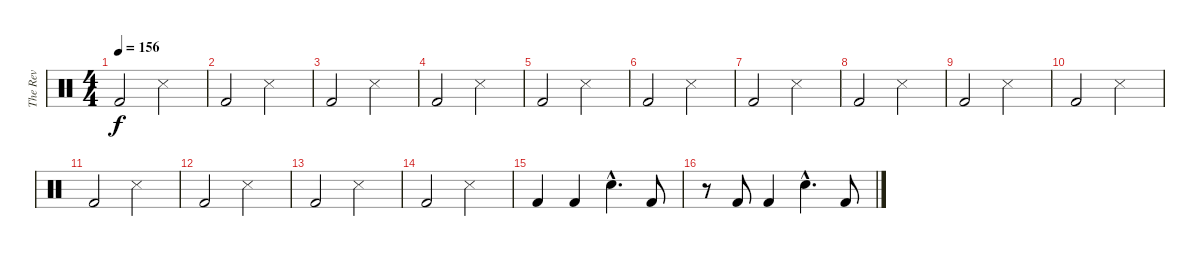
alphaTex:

\track ("The Rev" "The Rev") {instrument percussion}
\staff {score}
\articulation defaults
\ts (4 4)
\tempo 156
\clef neutral
\ks c "Kick (hit) 2".2{dy f} "Metronome (hit)".2
|
"Kick (hit) 2".2 "Metronome (hit)".2 |
"Kick (hit) 2".2 "Metronome (hit)".2 |
"Kick (hit) 2".2 "Metronome (hit)".2 |
"Kick (hit) 2".2 "Metronome (hit)".2 |
"Kick (hit) 2".2 "Metronome (hit)".2 |
"Kick (hit) 2".2 "Metronome (hit)".2 |
"Kick (hit) 2".2 "Metronome (hit)".2 |
"Kick (hit) 2".2 "Metronome (hit)".2 |
"Kick (hit) 2".2 "Metronome (hit)".2 |
"Kick (hit) 2".2 "Metronome (hit)".2 |
"Kick (hit) 2".2 "Metronome (hit)".2 |
"Kick (hit) 2".2 "Metronome (hit)".2 |
"Kick (hit) 2".2 "Metronome (hit)".2 |
"Kick (hit) 2".4 "Kick (hit) 2".4 "Electric Snare (hit)"{hac}.4{d} "Kick (hit) 2".8 |
r.8 "Kick (hit) 2".8 "Kick (hit) 2".4 "Electric Snare (hit)"{hac}.4{d} "Kick (hit) 2".8
